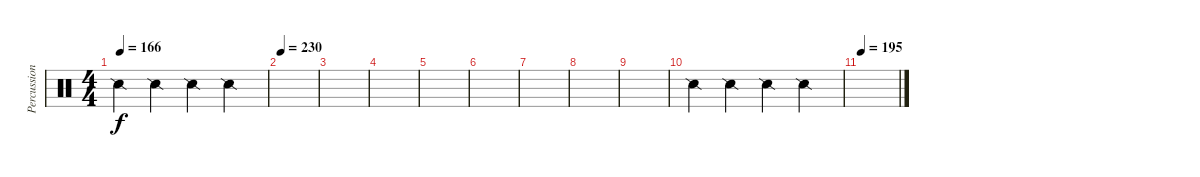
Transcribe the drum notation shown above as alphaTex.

\track ("Percussion" "Percussion") {instrument percussion}
\staff {score}
\articulation defaults
\ts (4 4)
\tempo 166
\clef neutral
\ks c "Snare (side stick) 2".4{dy f} "Snare (side stick) 2".4 "Snare (side stick) 2".4 "Snare (side stick) 2".4
|
\tempo 230
|
|
|
|
|
|
|
|
"Snare (side stick) 2".4 "Snare (side stick) 2".4 "Snare (side stick) 2".4 "Snare (side stick) 2".4 |
\tempo 195
